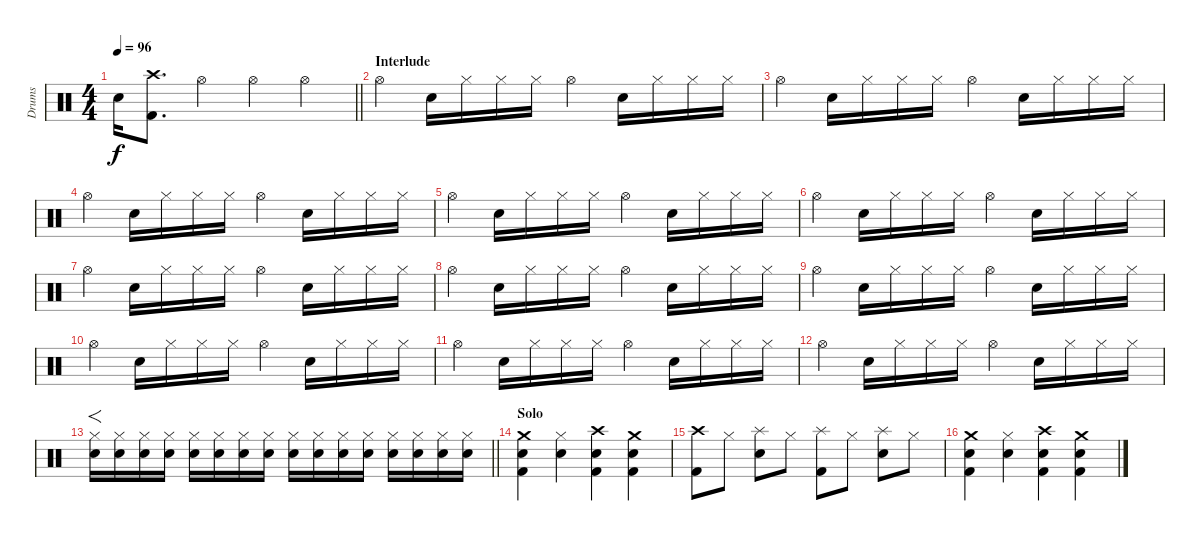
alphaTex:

\track ("Drums" "Drums") {instrument percussion}
\staff {score}
\articulation defaults
\ts (4 4)
\tempo 96
\clef neutral
\barLineRight lightlight
\ks c "Snare (hit) 2".16{dy f}
("Kick (hit) 2" "Crash high (hit)").8{d} "Hi-Hat (open)".4 "Hi-Hat (open)".4 "Hi-Hat (open)".4 |
\section ("" "Interlude")
"Hi-Hat (open)".4 "Snare (hit) 2".16 "Hi-Hat (closed)".16 "Hi-Hat (closed)".16 "Hi-Hat (closed)".16 "Hi-Hat (open)".4 "Snare (hit) 2".16 "Hi-Hat (closed)".16 "Hi-Hat (closed)".16 "Hi-Hat (closed)".16 |
"Hi-Hat (open)".4 "Snare (hit) 2".16 "Hi-Hat (closed)".16 "Hi-Hat (closed)".16 "Hi-Hat (closed)".16 "Hi-Hat (open)".4 "Snare (hit) 2".16 "Hi-Hat (closed)".16 "Hi-Hat (closed)".16 "Hi-Hat (closed)".16 |
"Hi-Hat (open)".4 "Snare (hit) 2".16 "Hi-Hat (closed)".16 "Hi-Hat (closed)".16 "Hi-Hat (closed)".16 "Hi-Hat (open)".4 "Snare (hit) 2".16 "Hi-Hat (closed)".16 "Hi-Hat (closed)".16 "Hi-Hat (closed)".16 |
"Hi-Hat (open)".4 "Snare (hit) 2".16 "Hi-Hat (closed)".16 "Hi-Hat (closed)".16 "Hi-Hat (closed)".16 "Hi-Hat (open)".4 "Snare (hit) 2".16 "Hi-Hat (closed)".16 "Hi-Hat (closed)".16 "Hi-Hat (closed)".16 |
"Hi-Hat (open)".4 "Snare (hit) 2".16 "Hi-Hat (closed)".16 "Hi-Hat (closed)".16 "Hi-Hat (closed)".16 "Hi-Hat (open)".4 "Snare (hit) 2".16 "Hi-Hat (closed)".16 "Hi-Hat (closed)".16 "Hi-Hat (closed)".16 |
"Hi-Hat (open)".4 "Snare (hit) 2".16 "Hi-Hat (closed)".16 "Hi-Hat (closed)".16 "Hi-Hat (closed)".16 "Hi-Hat (open)".4 "Snare (hit) 2".16 "Hi-Hat (closed)".16 "Hi-Hat (closed)".16 "Hi-Hat (closed)".16 |
"Hi-Hat (open)".4 "Snare (hit) 2".16 "Hi-Hat (closed)".16 "Hi-Hat (closed)".16 "Hi-Hat (closed)".16 "Hi-Hat (open)".4 "Snare (hit) 2".16 "Hi-Hat (closed)".16 "Hi-Hat (closed)".16 "Hi-Hat (closed)".16 |
"Hi-Hat (open)".4 "Snare (hit) 2".16 "Hi-Hat (closed)".16 "Hi-Hat (closed)".16 "Hi-Hat (closed)".16 "Hi-Hat (open)".4 "Snare (hit) 2".16 "Hi-Hat (closed)".16 "Hi-Hat (closed)".16 "Hi-Hat (closed)".16 |
"Hi-Hat (open)".4 "Snare (hit) 2".16 "Hi-Hat (closed)".16 "Hi-Hat (closed)".16 "Hi-Hat (closed)".16 "Hi-Hat (open)".4 "Snare (hit) 2".16 "Hi-Hat (closed)".16 "Hi-Hat (closed)".16 "Hi-Hat (closed)".16 |
"Hi-Hat (open)".4 "Snare (hit) 2".16 "Hi-Hat (closed)".16 "Hi-Hat (closed)".16 "Hi-Hat (closed)".16 "Hi-Hat (open)".4 "Snare (hit) 2".16 "Hi-Hat (closed)".16 "Hi-Hat (closed)".16 "Hi-Hat (closed)".16 |
"Hi-Hat (open)".4 "Snare (hit) 2".16 "Hi-Hat (closed)".16 "Hi-Hat (closed)".16 "Hi-Hat (closed)".16 "Hi-Hat (open)".4 "Snare (hit) 2".16 "Hi-Hat (closed)".16 "Hi-Hat (closed)".16 "Hi-Hat (closed)".16 |
\barLineRight lightlight
("Hi-Hat (closed)" "Snare (hit) 2").16{f} ("Hi-Hat (closed)" "Snare (hit) 2").16 ("Hi-Hat (closed)" "Snare (hit) 2").16 ("Hi-Hat (closed)" "Snare (hit) 2").16 ("Hi-Hat (closed)" "Snare (hit) 2").16 ("Hi-Hat (closed)" "Snare (hit) 2").16 ("Hi-Hat (closed)" "Snare (hit) 2").16 ("Hi-Hat (closed)" "Snare (hit) 2").16 ("Hi-Hat (closed)" "Snare (hit) 2").16 ("Hi-Hat (closed)" "Snare (hit) 2").16 ("Hi-Hat (closed)" "Snare (hit) 2").16 ("Hi-Hat (closed)" "Snare (hit) 2").16 ("Hi-Hat (closed)" "Snare (hit) 2").16 ("Hi-Hat (closed)" "Snare (hit) 2").16 ("Hi-Hat (closed)" "Snare (hit) 2").16 ("Hi-Hat (closed)" "Snare (hit) 2").16 |
\section ("" "Solo")
("Snare (hit) 2" "Kick (hit) 2" "Crash medium (hit)").4 ("Snare (hit) 2" "Hi-Hat (closed)").4 ("Snare (hit) 2" "Kick (hit) 2" "Crash high (hit)").4 ("Snare (hit) 2" "Kick (hit) 2" "Crash medium (hit)").4 |
("Kick (hit) 2" "Crash high (hit)").8 "Hi-Hat (closed)".8 ("Snare (hit) 2" "Splash (hit)").8 "Hi-Hat (closed)".8 ("Kick (hit) 2" "Splash (hit)").8 "Hi-Hat (closed)".8 ("Snare (hit) 2" "Splash (hit)").8 "Hi-Hat (closed)".8 |
("Snare (hit) 2" "Kick (hit) 2" "Crash medium (hit)").4 ("Snare (hit) 2" "Hi-Hat (closed)").4 ("Snare (hit) 2" "Kick (hit) 2" "Crash high (hit)").4 ("Snare (hit) 2" "Kick (hit) 2" "Crash medium (hit)").4
